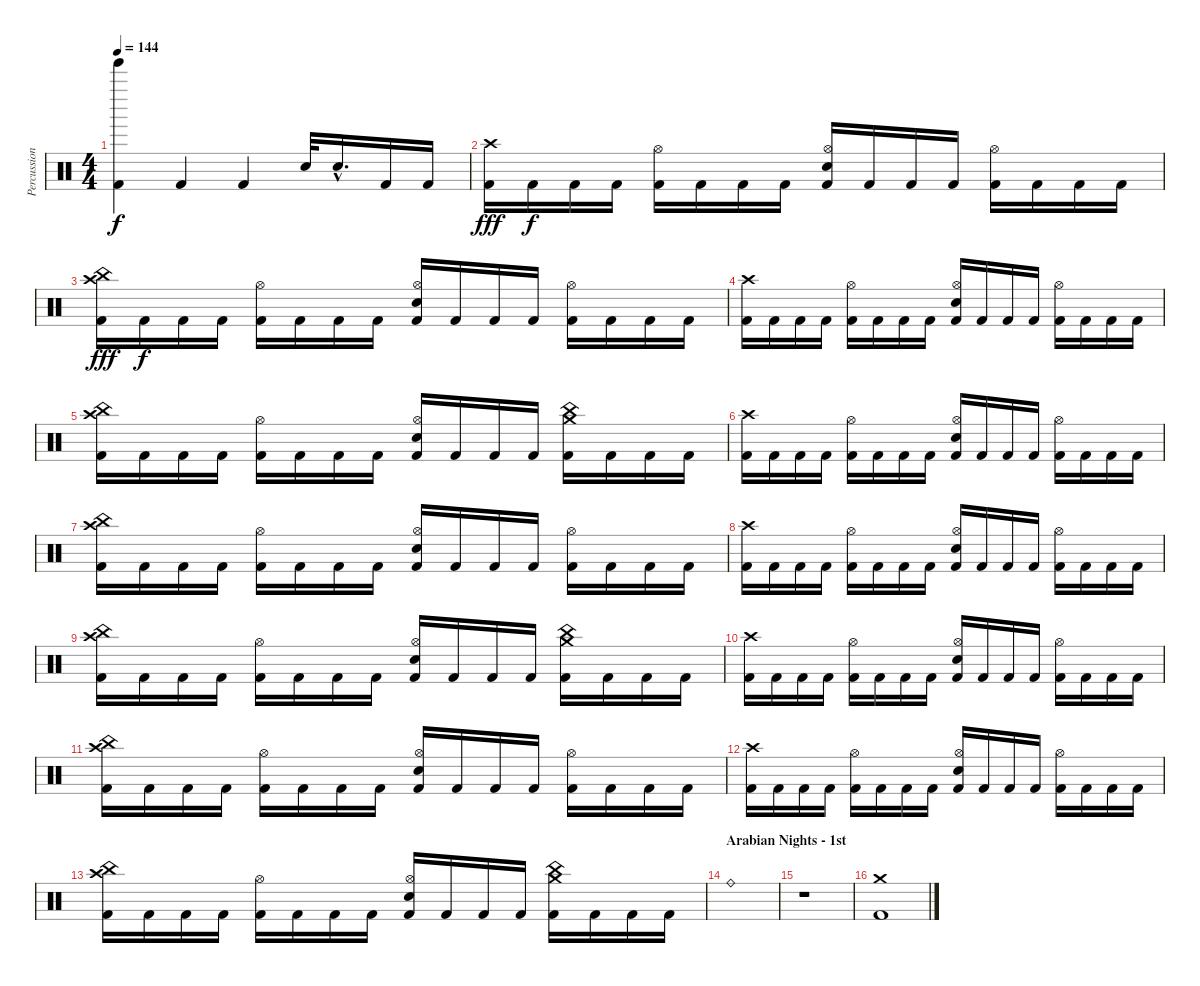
\track ("Percussion" "Percussion") {instrument percussion}
\staff {score}
\articulation defaults
\ts (4 4)
\tempo 144
\clef neutral
\ks c
("Tinkle Bell (hit)" "Kick (hit) 2").4{dy f} "Kick (hit) 2".4 "Kick (hit) 2".4 "Snare (hit) 2".32 "Snare (hit) 2"{hac}.16{d} "Kick (hit) 2".16 "Kick (hit) 2".16 |
("Crash high (hit)" "Kick (hit) 2").16{dy fff} "Kick (hit) 2".16{dy f} "Kick (hit) 2".16 "Kick (hit) 2".16 ("Hi-Hat (open)" "Kick (hit) 2").16 "Kick (hit) 2".16 "Kick (hit) 2".16 "Kick (hit) 2".16 ("Hi-Hat (open)" "Electric Snare (hit)" "Kick (hit) 2").16 "Kick (hit) 2".16 "Kick (hit) 2".16 "Kick (hit) 2".16 ("Hi-Hat (open)" "Kick (hit) 2").16 "Kick (hit) 2".16 "Kick (hit) 2".16 "Kick (hit) 2".16 |
("Crash high (hit)" "China (hit)" "Kick (hit) 2").16{dy fff} "Kick (hit) 2".16{dy f} "Kick (hit) 2".16 "Kick (hit) 2".16 ("Hi-Hat (open)" "Kick (hit) 2").16 "Kick (hit) 2".16 "Kick (hit) 2".16 "Kick (hit) 2".16 ("Hi-Hat (open)" "Electric Snare (hit)" "Kick (hit) 2").16 "Kick (hit) 2".16 "Kick (hit) 2".16 "Kick (hit) 2".16 ("Hi-Hat (open)" "Kick (hit) 2").16 "Kick (hit) 2".16 "Kick (hit) 2".16 "Kick (hit) 2".16 |
("Crash high (hit)" "Kick (hit) 2").16 "Kick (hit) 2".16 "Kick (hit) 2".16 "Kick (hit) 2".16 ("Hi-Hat (open)" "Kick (hit) 2").16 "Kick (hit) 2".16 "Kick (hit) 2".16 "Kick (hit) 2".16 ("Hi-Hat (open)" "Electric Snare (hit)" "Kick (hit) 2").16 "Kick (hit) 2".16 "Kick (hit) 2".16 "Kick (hit) 2".16 ("Hi-Hat (open)" "Kick (hit) 2").16 "Kick (hit) 2".16 "Kick (hit) 2".16 "Kick (hit) 2".16 |
("Crash high (hit)" "China (hit)" "Kick (hit) 2").16 "Kick (hit) 2".16 "Kick (hit) 2".16 "Kick (hit) 2".16 ("Hi-Hat (open)" "Kick (hit) 2").16 "Kick (hit) 2".16 "Kick (hit) 2".16 "Kick (hit) 2".16 ("Hi-Hat (open)" "Electric Snare (hit)" "Kick (hit) 2").16 "Kick (hit) 2".16 "Kick (hit) 2".16 "Kick (hit) 2".16 ("Crash medium (hit)" "China (hit)" "Kick (hit) 2").16 "Kick (hit) 2".16 "Kick (hit) 2".16 "Kick (hit) 2".16 |
("Crash high (hit)" "Kick (hit) 2").16 "Kick (hit) 2".16 "Kick (hit) 2".16 "Kick (hit) 2".16 ("Hi-Hat (open)" "Kick (hit) 2").16 "Kick (hit) 2".16 "Kick (hit) 2".16 "Kick (hit) 2".16 ("Hi-Hat (open)" "Electric Snare (hit)" "Kick (hit) 2").16 "Kick (hit) 2".16 "Kick (hit) 2".16 "Kick (hit) 2".16 ("Hi-Hat (open)" "Kick (hit) 2").16 "Kick (hit) 2".16 "Kick (hit) 2".16 "Kick (hit) 2".16 |
("Crash high (hit)" "China (hit)" "Kick (hit) 2").16 "Kick (hit) 2".16 "Kick (hit) 2".16 "Kick (hit) 2".16 ("Hi-Hat (open)" "Kick (hit) 2").16 "Kick (hit) 2".16 "Kick (hit) 2".16 "Kick (hit) 2".16 ("Hi-Hat (open)" "Electric Snare (hit)" "Kick (hit) 2").16 "Kick (hit) 2".16 "Kick (hit) 2".16 "Kick (hit) 2".16 ("Hi-Hat (open)" "Kick (hit) 2").16 "Kick (hit) 2".16 "Kick (hit) 2".16 "Kick (hit) 2".16 |
("Crash high (hit)" "Kick (hit) 2").16 "Kick (hit) 2".16 "Kick (hit) 2".16 "Kick (hit) 2".16 ("Hi-Hat (open)" "Kick (hit) 2").16 "Kick (hit) 2".16 "Kick (hit) 2".16 "Kick (hit) 2".16 ("Hi-Hat (open)" "Electric Snare (hit)" "Kick (hit) 2").16 "Kick (hit) 2".16 "Kick (hit) 2".16 "Kick (hit) 2".16 ("Hi-Hat (open)" "Kick (hit) 2").16 "Kick (hit) 2".16 "Kick (hit) 2".16 "Kick (hit) 2".16 |
("Crash high (hit)" "China (hit)" "Kick (hit) 2").16 "Kick (hit) 2".16 "Kick (hit) 2".16 "Kick (hit) 2".16 ("Hi-Hat (open)" "Kick (hit) 2").16 "Kick (hit) 2".16 "Kick (hit) 2".16 "Kick (hit) 2".16 ("Hi-Hat (open)" "Electric Snare (hit)" "Kick (hit) 2").16 "Kick (hit) 2".16 "Kick (hit) 2".16 "Kick (hit) 2".16 ("Crash medium (hit)" "China (hit)" "Kick (hit) 2").16 "Kick (hit) 2".16 "Kick (hit) 2".16 "Kick (hit) 2".16 |
("Crash high (hit)" "Kick (hit) 2").16 "Kick (hit) 2".16 "Kick (hit) 2".16 "Kick (hit) 2".16 ("Hi-Hat (open)" "Kick (hit) 2").16 "Kick (hit) 2".16 "Kick (hit) 2".16 "Kick (hit) 2".16 ("Hi-Hat (open)" "Electric Snare (hit)" "Kick (hit) 2").16 "Kick (hit) 2".16 "Kick (hit) 2".16 "Kick (hit) 2".16 ("Hi-Hat (open)" "Kick (hit) 2").16 "Kick (hit) 2".16 "Kick (hit) 2".16 "Kick (hit) 2".16 |
("Crash high (hit)" "China (hit)" "Kick (hit) 2").16 "Kick (hit) 2".16 "Kick (hit) 2".16 "Kick (hit) 2".16 ("Hi-Hat (open)" "Kick (hit) 2").16 "Kick (hit) 2".16 "Kick (hit) 2".16 "Kick (hit) 2".16 ("Hi-Hat (open)" "Electric Snare (hit)" "Kick (hit) 2").16 "Kick (hit) 2".16 "Kick (hit) 2".16 "Kick (hit) 2".16 ("Hi-Hat (open)" "Kick (hit) 2").16 "Kick (hit) 2".16 "Kick (hit) 2".16 "Kick (hit) 2".16 |
("Crash high (hit)" "Kick (hit) 2").16 "Kick (hit) 2".16 "Kick (hit) 2".16 "Kick (hit) 2".16 ("Hi-Hat (open)" "Kick (hit) 2").16 "Kick (hit) 2".16 "Kick (hit) 2".16 "Kick (hit) 2".16 ("Hi-Hat (open)" "Electric Snare (hit)" "Kick (hit) 2").16 "Kick (hit) 2".16 "Kick (hit) 2".16 "Kick (hit) 2".16 ("Hi-Hat (open)" "Kick (hit) 2").16 "Kick (hit) 2".16 "Kick (hit) 2".16 "Kick (hit) 2".16 |
("Crash high (hit)" "China (hit)" "Kick (hit) 2").16 "Kick (hit) 2".16 "Kick (hit) 2".16 "Kick (hit) 2".16 ("Hi-Hat (open)" "Kick (hit) 2").16 "Kick (hit) 2".16 "Kick (hit) 2".16 "Kick (hit) 2".16 ("Hi-Hat (open)" "Electric Snare (hit)" "Kick (hit) 2").16 "Kick (hit) 2".16 "Kick (hit) 2".16 "Kick (hit) 2".16 ("Crash medium (hit)" "China (hit)" "Kick (hit) 2").16 "Kick (hit) 2".16 "Kick (hit) 2".16 "Kick (hit) 2".16 |
\section ("" "Arabian Nights - 1st")
"Ride (bell)".1 |
r.1 |
("Crash medium (hit)" "Kick (hit) 2").1
